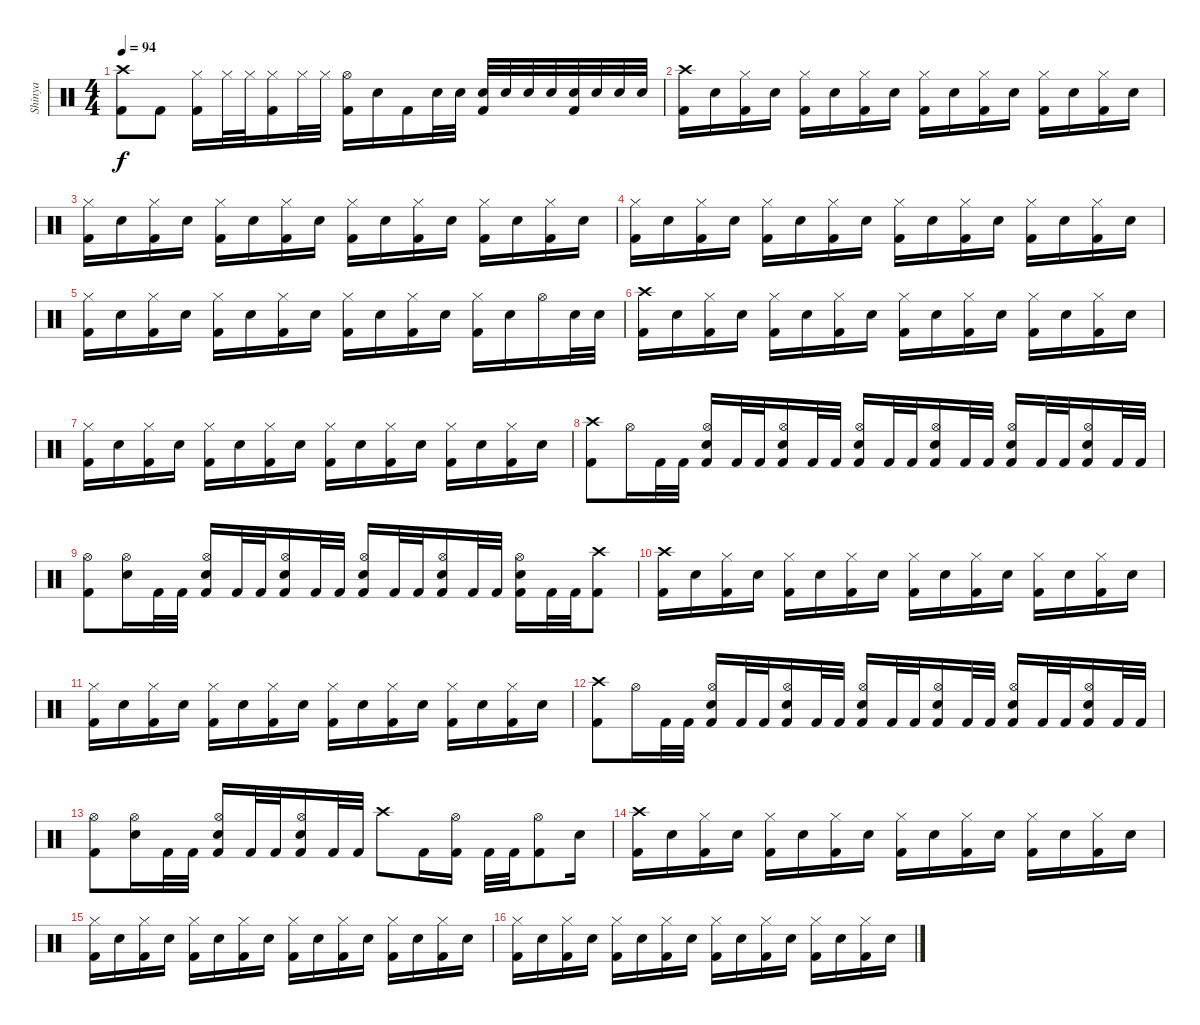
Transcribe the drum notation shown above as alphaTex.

\track ("Shinya" "Shinya") {instrument percussion}
\staff {score}
\articulation defaults
\ts (4 4)
\tempo 94
\clef neutral
\ks c
("Crash high (hit)" "Kick (hit) 2").8{dy f} "Kick (hit) 2".8 ("Hi-Hat (closed)" "Kick (hit) 2").16 "Hi-Hat (closed)".32 "Hi-Hat (closed)".32 ("Hi-Hat (closed)" "Kick (hit) 2").16 "Hi-Hat (closed)".32 "Hi-Hat (closed)".32 ("Hi-Hat (open)" "Kick (hit) 2").16 "Snare (hit) 2".16 "Kick (hit) 2".16 "Snare (hit) 2".32 "Snare (hit) 2".32 ("Snare (hit) 2" "Kick (hit) 2").32 "Snare (hit) 2".32 "Snare (hit) 2".32 "Snare (hit) 2".32 ("Snare (hit) 2" "Kick (hit) 2").32 "Snare (hit) 2".32 "Snare (hit) 2".32 "Snare (hit) 2".32 |
("Crash high (hit)" "Kick (hit) 2").16 "Snare (hit) 2".16 ("Hi-Hat (closed)" "Kick (hit) 2").16 "Snare (hit) 2".16 ("Hi-Hat (closed)" "Kick (hit) 2").16 "Snare (hit) 2".16 ("Hi-Hat (closed)" "Kick (hit) 2").16 "Snare (hit) 2".16 ("Hi-Hat (closed)" "Kick (hit) 2").16 "Snare (hit) 2".16 ("Hi-Hat (closed)" "Kick (hit) 2").16 "Snare (hit) 2".16 ("Hi-Hat (closed)" "Kick (hit) 2").16 "Snare (hit) 2".16 ("Hi-Hat (closed)" "Kick (hit) 2").16 "Snare (hit) 2".16 |
("Hi-Hat (closed)" "Kick (hit) 2").16 "Snare (hit) 2".16 ("Hi-Hat (closed)" "Kick (hit) 2").16 "Snare (hit) 2".16 ("Hi-Hat (closed)" "Kick (hit) 2").16 "Snare (hit) 2".16 ("Hi-Hat (closed)" "Kick (hit) 2").16 "Snare (hit) 2".16 ("Hi-Hat (closed)" "Kick (hit) 2").16 "Snare (hit) 2".16 ("Hi-Hat (closed)" "Kick (hit) 2").16 "Snare (hit) 2".16 ("Hi-Hat (closed)" "Kick (hit) 2").16 "Snare (hit) 2".16 ("Hi-Hat (closed)" "Kick (hit) 2").16 "Snare (hit) 2".16 |
("Hi-Hat (closed)" "Kick (hit) 2").16 "Snare (hit) 2".16 ("Hi-Hat (closed)" "Kick (hit) 2").16 "Snare (hit) 2".16 ("Hi-Hat (closed)" "Kick (hit) 2").16 "Snare (hit) 2".16 ("Hi-Hat (closed)" "Kick (hit) 2").16 "Snare (hit) 2".16 ("Hi-Hat (closed)" "Kick (hit) 2").16 "Snare (hit) 2".16 ("Hi-Hat (closed)" "Kick (hit) 2").16 "Snare (hit) 2".16 ("Hi-Hat (closed)" "Kick (hit) 2").16 "Snare (hit) 2".16 ("Hi-Hat (closed)" "Kick (hit) 2").16 "Snare (hit) 2".16 |
("Hi-Hat (closed)" "Kick (hit) 2").16 "Snare (hit) 2".16 ("Hi-Hat (closed)" "Kick (hit) 2").16 "Snare (hit) 2".16 ("Hi-Hat (closed)" "Kick (hit) 2").16 "Snare (hit) 2".16 ("Hi-Hat (closed)" "Kick (hit) 2").16 "Snare (hit) 2".16 ("Hi-Hat (closed)" "Kick (hit) 2").16 "Snare (hit) 2".16 ("Hi-Hat (closed)" "Kick (hit) 2").16 "Snare (hit) 2".16 ("Hi-Hat (closed)" "Kick (hit) 2").16 "Snare (hit) 2".16 "Hi-Hat (open)".16 "Snare (hit) 2".32 "Snare (hit) 2".32 |
("Crash high (hit)" "Kick (hit) 2").16 "Snare (hit) 2".16 ("Hi-Hat (closed)" "Kick (hit) 2").16 "Snare (hit) 2".16 ("Hi-Hat (closed)" "Kick (hit) 2").16 "Snare (hit) 2".16 ("Hi-Hat (closed)" "Kick (hit) 2").16 "Snare (hit) 2".16 ("Hi-Hat (closed)" "Kick (hit) 2").16 "Snare (hit) 2".16 ("Hi-Hat (closed)" "Kick (hit) 2").16 "Snare (hit) 2".16 ("Hi-Hat (closed)" "Kick (hit) 2").16 "Snare (hit) 2".16 ("Hi-Hat (closed)" "Kick (hit) 2").16 "Snare (hit) 2".16 |
("Hi-Hat (closed)" "Kick (hit) 2").16 "Snare (hit) 2".16 ("Hi-Hat (closed)" "Kick (hit) 2").16 "Snare (hit) 2".16 ("Hi-Hat (closed)" "Kick (hit) 2").16 "Snare (hit) 2".16 ("Hi-Hat (closed)" "Kick (hit) 2").16 "Snare (hit) 2".16 ("Hi-Hat (closed)" "Kick (hit) 2").16 "Snare (hit) 2".16 ("Hi-Hat (closed)" "Kick (hit) 2").16 "Snare (hit) 2".16 ("Hi-Hat (closed)" "Kick (hit) 2").16 "Snare (hit) 2".16 ("Hi-Hat (closed)" "Kick (hit) 2").16 "Snare (hit) 2".16 |
("Crash high (hit)" "Kick (hit) 2").8 "Hi-Hat (open)".16 "Kick (hit) 2".32 "Kick (hit) 2".32 ("Snare (hit) 2" "Hi-Hat (open)" "Kick (hit) 2").16 "Kick (hit) 2".32 "Kick (hit) 2".32 ("Snare (hit) 2" "Hi-Hat (open)" "Kick (hit) 2").16 "Kick (hit) 2".32 "Kick (hit) 2".32 ("Snare (hit) 2" "Hi-Hat (open)" "Kick (hit) 2").16 "Kick (hit) 2".32 "Kick (hit) 2".32 ("Snare (hit) 2" "Hi-Hat (open)" "Kick (hit) 2").16 "Kick (hit) 2".32 "Kick (hit) 2".32 ("Snare (hit) 2" "Hi-Hat (open)" "Kick (hit) 2").16 "Kick (hit) 2".32 "Kick (hit) 2".32 ("Hi-Hat (open)" "Snare (hit) 2" "Kick (hit) 2").16 "Kick (hit) 2".32 "Kick (hit) 2".32 |
("Hi-Hat (open)" "Kick (hit) 2").8 ("Hi-Hat (open)" "Snare (hit) 2").16 "Kick (hit) 2".32 "Kick (hit) 2".32 ("Snare (hit) 2" "Hi-Hat (open)" "Kick (hit) 2").16 "Kick (hit) 2".32 "Kick (hit) 2".32 ("Snare (hit) 2" "Hi-Hat (open)" "Kick (hit) 2").16 "Kick (hit) 2".32 "Kick (hit) 2".32 ("Snare (hit) 2" "Hi-Hat (open)" "Kick (hit) 2").16 "Kick (hit) 2".32 "Kick (hit) 2".32 ("Snare (hit) 2" "Hi-Hat (open)" "Kick (hit) 2").16 "Kick (hit) 2".32 "Kick (hit) 2".32 ("Snare (hit) 2" "Hi-Hat (open)" "Kick (hit) 2").16 "Kick (hit) 2".32 "Kick (hit) 2".32 ("Crash high (hit)" "Kick (hit) 2").8 |
("Crash high (hit)" "Kick (hit) 2").16 "Snare (hit) 2".16 ("Hi-Hat (closed)" "Kick (hit) 2").16 "Snare (hit) 2".16 ("Hi-Hat (closed)" "Kick (hit) 2").16 "Snare (hit) 2".16 ("Hi-Hat (closed)" "Kick (hit) 2").16 "Snare (hit) 2".16 ("Hi-Hat (closed)" "Kick (hit) 2").16 "Snare (hit) 2".16 ("Hi-Hat (closed)" "Kick (hit) 2").16 "Snare (hit) 2".16 ("Hi-Hat (closed)" "Kick (hit) 2").16 "Snare (hit) 2".16 ("Hi-Hat (closed)" "Kick (hit) 2").16 "Snare (hit) 2".16 |
("Hi-Hat (closed)" "Kick (hit) 2").16 "Snare (hit) 2".16 ("Hi-Hat (closed)" "Kick (hit) 2").16 "Snare (hit) 2".16 ("Hi-Hat (closed)" "Kick (hit) 2").16 "Snare (hit) 2".16 ("Hi-Hat (closed)" "Kick (hit) 2").16 "Snare (hit) 2".16 ("Hi-Hat (closed)" "Kick (hit) 2").16 "Snare (hit) 2".16 ("Hi-Hat (closed)" "Kick (hit) 2").16 "Snare (hit) 2".16 ("Hi-Hat (closed)" "Kick (hit) 2").16 "Snare (hit) 2".16 ("Hi-Hat (closed)" "Kick (hit) 2").16 "Snare (hit) 2".16 |
("Crash high (hit)" "Kick (hit) 2").8 "Hi-Hat (open)".16 "Kick (hit) 2".32 "Kick (hit) 2".32 ("Snare (hit) 2" "Hi-Hat (open)" "Kick (hit) 2").16 "Kick (hit) 2".32 "Kick (hit) 2".32 ("Snare (hit) 2" "Hi-Hat (open)" "Kick (hit) 2").16 "Kick (hit) 2".32 "Kick (hit) 2".32 ("Snare (hit) 2" "Hi-Hat (open)" "Kick (hit) 2").16 "Kick (hit) 2".32 "Kick (hit) 2".32 ("Snare (hit) 2" "Hi-Hat (open)" "Kick (hit) 2").16 "Kick (hit) 2".32 "Kick (hit) 2".32 ("Snare (hit) 2" "Hi-Hat (open)" "Kick (hit) 2").16 "Kick (hit) 2".32 "Kick (hit) 2".32 ("Hi-Hat (open)" "Snare (hit) 2" "Kick (hit) 2").16 "Kick (hit) 2".32 "Kick (hit) 2".32 |
("Hi-Hat (open)" "Kick (hit) 2").8 ("Hi-Hat (open)" "Snare (hit) 2").16 "Kick (hit) 2".32 "Kick (hit) 2".32 ("Snare (hit) 2" "Hi-Hat (open)" "Kick (hit) 2").16 "Kick (hit) 2".32 "Kick (hit) 2".32 ("Snare (hit) 2" "Hi-Hat (open)" "Kick (hit) 2").16 "Kick (hit) 2".32 "Kick (hit) 2".32 "Crash high (hit)".8 "Kick (hit) 2".16 ("Hi-Hat (open)" "Kick (hit) 2").16 "Kick (hit) 2".32 "Kick (hit) 2".32 ("Hi-Hat (open)" "Kick (hit) 2").8 "Snare (hit) 2".16 |
("Crash high (hit)" "Kick (hit) 2").16 "Snare (hit) 2".16 ("Hi-Hat (closed)" "Kick (hit) 2").16 "Snare (hit) 2".16 ("Hi-Hat (closed)" "Kick (hit) 2").16 "Snare (hit) 2".16 ("Hi-Hat (closed)" "Kick (hit) 2").16 "Snare (hit) 2".16 ("Hi-Hat (closed)" "Kick (hit) 2").16 "Snare (hit) 2".16 ("Hi-Hat (closed)" "Kick (hit) 2").16 "Snare (hit) 2".16 ("Hi-Hat (closed)" "Kick (hit) 2").16 "Snare (hit) 2".16 ("Hi-Hat (closed)" "Kick (hit) 2").16 "Snare (hit) 2".16 |
("Hi-Hat (closed)" "Kick (hit) 2").16 "Snare (hit) 2".16 ("Hi-Hat (closed)" "Kick (hit) 2").16 "Snare (hit) 2".16 ("Hi-Hat (closed)" "Kick (hit) 2").16 "Snare (hit) 2".16 ("Hi-Hat (closed)" "Kick (hit) 2").16 "Snare (hit) 2".16 ("Hi-Hat (closed)" "Kick (hit) 2").16 "Snare (hit) 2".16 ("Hi-Hat (closed)" "Kick (hit) 2").16 "Snare (hit) 2".16 ("Hi-Hat (closed)" "Kick (hit) 2").16 "Snare (hit) 2".16 ("Hi-Hat (closed)" "Kick (hit) 2").16 "Snare (hit) 2".16 |
("Hi-Hat (closed)" "Kick (hit) 2").16 "Snare (hit) 2".16 ("Hi-Hat (closed)" "Kick (hit) 2").16 "Snare (hit) 2".16 ("Hi-Hat (closed)" "Kick (hit) 2").16 "Snare (hit) 2".16 ("Hi-Hat (closed)" "Kick (hit) 2").16 "Snare (hit) 2".16 ("Hi-Hat (closed)" "Kick (hit) 2").16 "Snare (hit) 2".16 ("Hi-Hat (closed)" "Kick (hit) 2").16 "Snare (hit) 2".16 ("Hi-Hat (closed)" "Kick (hit) 2").16 "Snare (hit) 2".16 ("Hi-Hat (closed)" "Kick (hit) 2").16 "Snare (hit) 2".16
